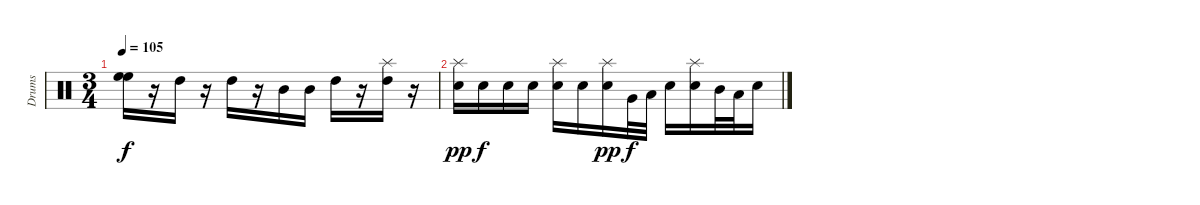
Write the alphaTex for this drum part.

\track ("Drums" "Drums") {instrument percussion}
\staff {score}
\articulation defaults
\ts (3 4)
\tempo 105
\clef neutral
\ks c
("High Floor Tom (hit)" "High Floor Tom (hit)").16{dy f} r.16 "High Tom (hit)".16 r.16 "High Tom (hit)".16 r.16 "Mid Tom (hit)".16 "Mid Tom (hit)".16 "High Tom (hit)".16 r.16 ("Splash (hit)" "High Tom (hit)").16 r.16 |
("Splash (hit)" "Snare (hit) 2").16{dy pp} "Snare (hit) 2".16{dy f} "Snare (hit) 2".16 "Snare (hit) 2".16 ("Splash (hit)" "Snare (hit) 2").16 "Snare (hit) 2".16 ("Splash (hit)" "Snare (hit) 2").16{dy pp} "Very Low Tom (hit)".32{dy f} "Low Floor Tom (hit)".32 "Snare (hit) 2".16 ("Splash (hit)" "Snare (hit) 2").16 "Mid Tom (hit)".32 "Low Tom (hit)".32 "Snare (hit) 2".16
